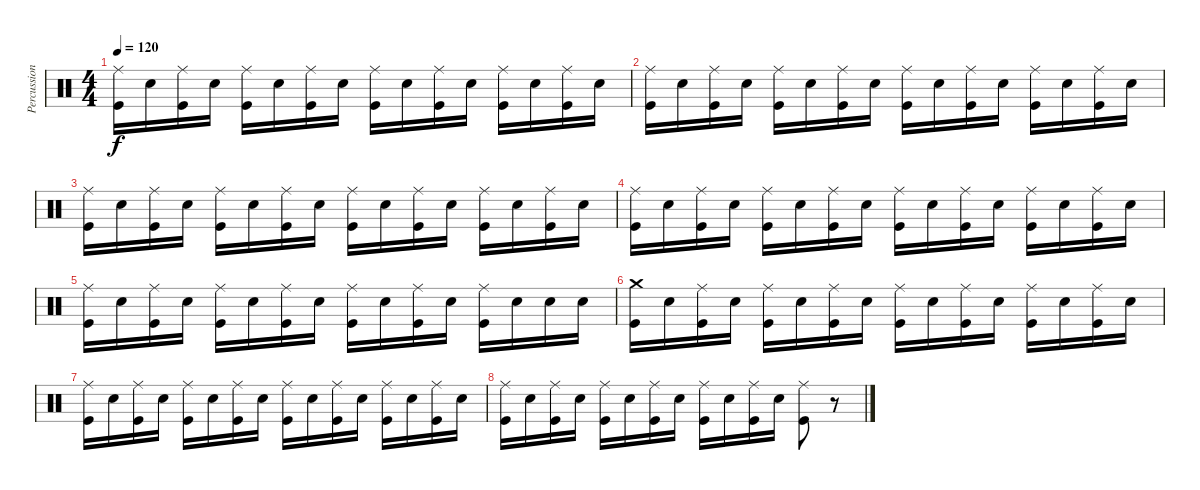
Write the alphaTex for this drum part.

\track ("Percussioni" "Percussion") {instrument percussion}
\staff {score}
\articulation defaults
\ts (4 4)
\tempo 120
\clef neutral
\ks c
("Ride (middle)" "Kick (hit)").16{dy f} "Snare (hit) 2".16 ("Ride (middle)" "Kick (hit)").16 "Snare (hit) 2".16 ("Ride (middle)" "Kick (hit)").16 "Snare (hit) 2".16 ("Ride (middle)" "Kick (hit)").16 "Snare (hit) 2".16 ("Ride (middle)" "Kick (hit)").16 "Snare (hit) 2".16 ("Ride (middle)" "Kick (hit)").16 "Snare (hit) 2".16 ("Ride (middle)" "Kick (hit)").16 "Snare (hit) 2".16 ("Ride (middle)" "Kick (hit)").16 "Snare (hit) 2".16 |
("Ride (middle)" "Kick (hit)").16 "Snare (hit) 2".16 ("Ride (middle)" "Kick (hit)").16 "Snare (hit) 2".16 ("Ride (middle)" "Kick (hit)").16 "Snare (hit) 2".16 ("Ride (middle)" "Kick (hit)").16 "Snare (hit) 2".16 ("Ride (middle)" "Kick (hit)").16 "Snare (hit) 2".16 ("Ride (middle)" "Kick (hit)").16 "Snare (hit) 2".16 ("Ride (middle)" "Kick (hit)").16 "Snare (hit) 2".16 ("Ride (middle)" "Kick (hit)").16 "Snare (hit) 2".16 |
("Ride (middle)" "Kick (hit)").16 "Snare (hit) 2".16 ("Ride (middle)" "Kick (hit)").16 "Snare (hit) 2".16 ("Ride (middle)" "Kick (hit)").16 "Snare (hit) 2".16 ("Ride (middle)" "Kick (hit)").16 "Snare (hit) 2".16 ("Ride (middle)" "Kick (hit)").16 "Snare (hit) 2".16 ("Ride (middle)" "Kick (hit)").16 "Snare (hit) 2".16 ("Ride (middle)" "Kick (hit)").16 "Snare (hit) 2".16 ("Ride (middle)" "Kick (hit)").16 "Snare (hit) 2".16 |
("Ride (middle)" "Kick (hit)").16 "Snare (hit) 2".16 ("Ride (middle)" "Kick (hit)").16 "Snare (hit) 2".16 ("Ride (middle)" "Kick (hit)").16 "Snare (hit) 2".16 ("Ride (middle)" "Kick (hit)").16 "Snare (hit) 2".16 ("Ride (middle)" "Kick (hit)").16 "Snare (hit) 2".16 ("Ride (middle)" "Kick (hit)").16 "Snare (hit) 2".16 ("Ride (middle)" "Kick (hit)").16 "Snare (hit) 2".16 ("Ride (middle)" "Kick (hit)").16 "Snare (hit) 2".16 |
("Ride (middle)" "Kick (hit)").16 "Snare (hit) 2".16 ("Ride (middle)" "Kick (hit)").16 "Snare (hit) 2".16 ("Ride (middle)" "Kick (hit)").16 "Snare (hit) 2".16 ("Ride (middle)" "Kick (hit)").16 "Snare (hit) 2".16 ("Ride (middle)" "Kick (hit)").16 "Snare (hit) 2".16 ("Ride (middle)" "Kick (hit)").16 "Snare (hit) 2".16 ("Ride (middle)" "Kick (hit)").16 "Snare (hit) 2".16 "Snare (hit) 2".16 "Snare (hit) 2".16 |
("Crash medium (hit)" "Kick (hit)").16 "Snare (hit) 2".16 ("Ride (middle)" "Kick (hit)").16 "Snare (hit) 2".16 ("Ride (middle)" "Kick (hit)").16 "Snare (hit) 2".16 ("Ride (middle)" "Kick (hit)").16 "Snare (hit) 2".16 ("Ride (middle)" "Kick (hit)").16 "Snare (hit) 2".16 ("Ride (middle)" "Kick (hit)").16 "Snare (hit) 2".16 ("Ride (middle)" "Kick (hit)").16 "Snare (hit) 2".16 ("Ride (middle)" "Kick (hit)").16 "Snare (hit) 2".16 |
("Ride (middle)" "Kick (hit)").16 "Snare (hit) 2".16 ("Ride (middle)" "Kick (hit)").16 "Snare (hit) 2".16 ("Ride (middle)" "Kick (hit)").16 "Snare (hit) 2".16 ("Ride (middle)" "Kick (hit)").16 "Snare (hit) 2".16 ("Ride (middle)" "Kick (hit)").16 "Snare (hit) 2".16 ("Ride (middle)" "Kick (hit)").16 "Snare (hit) 2".16 ("Ride (middle)" "Kick (hit)").16 "Snare (hit) 2".16 ("Ride (middle)" "Kick (hit)").16 "Snare (hit) 2".16 |
("Ride (middle)" "Kick (hit)").16 "Snare (hit) 2".16 ("Ride (middle)" "Kick (hit)").16 "Snare (hit) 2".16 ("Ride (middle)" "Kick (hit)").16 "Snare (hit) 2".16 ("Ride (middle)" "Kick (hit)").16 "Snare (hit) 2".16 ("Ride (middle)" "Kick (hit)").16 "Snare (hit) 2".16 ("Ride (middle)" "Kick (hit)").16 "Snare (hit) 2".16 ("Ride (middle)" "Kick (hit)").8 r.8
